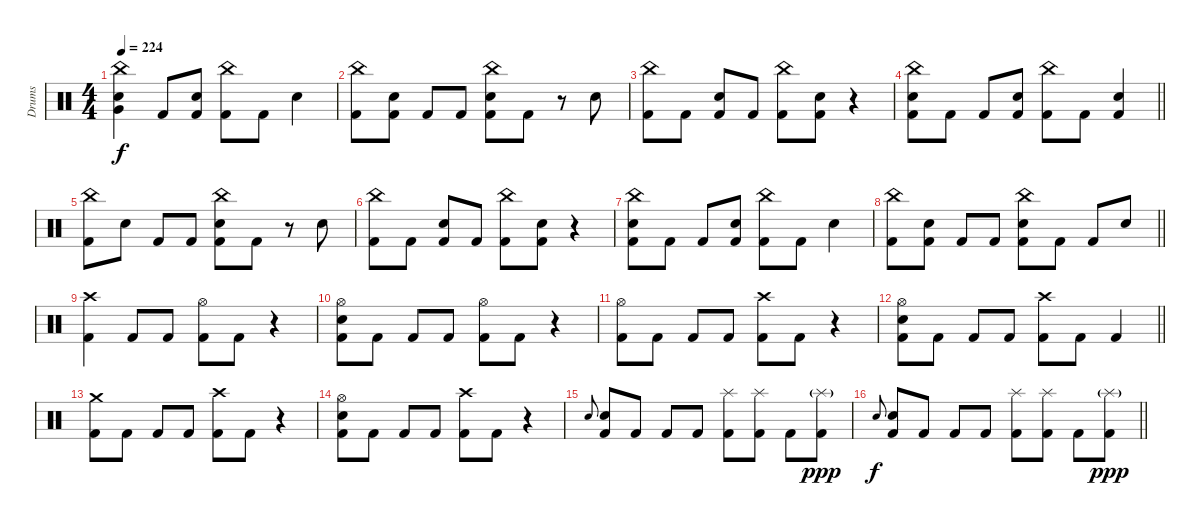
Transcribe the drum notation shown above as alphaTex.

\track ("Drums" "Drums") {instrument percussion}
\staff {score}
\articulation defaults
\ts (4 4)
\section ("" "")
\tempo 224
\clef neutral
\ks c
("China (hit)" "Electric Snare (hit)" "Very Low Tom (hit)").4{dy f} "Kick (hit) 2".8 ("Electric Snare (hit)" "Kick (hit) 2").8 ("China (hit)" "Kick (hit) 2").8 "Kick (hit) 2".8 "Electric Snare (hit)".4 |
("China (hit)" "Kick (hit) 2").8 ("Electric Snare (hit)" "Kick (hit) 2").8 "Kick (hit) 2".8 "Kick (hit) 2".8 ("China (hit)" "Electric Snare (hit)" "Kick (hit) 2").8 "Kick (hit) 2".8 r.8 "Electric Snare (hit)".8 |
("China (hit)" "Kick (hit) 2").8 "Kick (hit) 2".8 ("Electric Snare (hit)" "Kick (hit) 2").8 "Kick (hit) 2".8 ("China (hit)" "Kick (hit) 2").8 ("Electric Snare (hit)" "Kick (hit) 2").8 r.4 |
\barLineRight lightlight
("China (hit)" "Electric Snare (hit)" "Kick (hit) 2").8 "Kick (hit) 2".8 "Kick (hit) 2".8 ("Electric Snare (hit)" "Kick (hit) 2").8 ("China (hit)" "Kick (hit) 2").8 "Kick (hit) 2".8 ("Electric Snare (hit)" "Kick (hit) 2").4 |
("China (hit)" "Kick (hit) 2").8 "Electric Snare (hit)".8 "Kick (hit) 2".8 "Kick (hit) 2".8 ("China (hit)" "Electric Snare (hit)" "Kick (hit) 2").8 "Kick (hit) 2".8 r.8 "Electric Snare (hit)".8 |
("China (hit)" "Kick (hit) 2").8 "Kick (hit) 2".8 ("Electric Snare (hit)" "Kick (hit) 2").8 "Kick (hit) 2".8 ("China (hit)" "Kick (hit) 2").8 ("Electric Snare (hit)" "Kick (hit) 2").8 r.4 |
("China (hit)" "Electric Snare (hit)" "Kick (hit) 2").8 "Kick (hit) 2".8 "Kick (hit) 2".8 ("Electric Snare (hit)" "Kick (hit) 2").8 ("China (hit)" "Kick (hit) 2").8 "Kick (hit) 2".8 "Electric Snare (hit)".4 |
\barLineRight lightlight
("China (hit)" "Kick (hit) 2").8 ("Electric Snare (hit)" "Kick (hit) 2").8 "Kick (hit) 2".8 "Kick (hit) 2".8 ("China (hit)" "Electric Snare (hit)" "Kick (hit) 2").8 "Kick (hit) 2".8 "Kick (hit) 2".8 "Electric Snare (hit)".8 |
\section ("" "")
("Crash high (hit)" "Kick (hit) 2").4 "Kick (hit) 2".8 "Kick (hit) 2".8 ("Hi-Hat (open)" "Kick (hit) 2").8 "Kick (hit) 2".8 r.4 |
("Hi-Hat (open)" "Electric Snare (hit)" "Kick (hit) 2").8 "Kick (hit) 2".8 "Kick (hit) 2".8 "Kick (hit) 2".8 ("Hi-Hat (open)" "Kick (hit) 2").8 "Kick (hit) 2".8 r.4 |
("Hi-Hat (open)" "Kick (hit) 2").8 "Kick (hit) 2".8 "Kick (hit) 2".8 "Kick (hit) 2".8 ("Crash high (hit)" "Kick (hit) 2").8 "Kick (hit) 2".8 r.4 |
\barLineRight lightlight
("Hi-Hat (open)" "Electric Snare (hit)" "Kick (hit) 2").8 "Kick (hit) 2".8 "Kick (hit) 2".8 "Kick (hit) 2".8 ("Crash high (hit)" "Kick (hit) 2").8 "Kick (hit) 2".8 "Kick (hit) 2".4 |
("Crash medium (hit)" "Kick (hit) 2").8 "Kick (hit) 2".8 "Kick (hit) 2".8 "Kick (hit) 2".8 ("Crash high (hit)" "Kick (hit) 2").8 "Kick (hit) 2".8 r.4 |
("Hi-Hat (open)" "Electric Snare (hit)" "Kick (hit) 2").8 "Kick (hit) 2".8 "Kick (hit) 2".8 "Kick (hit) 2".8 ("Crash high (hit)" "Kick (hit) 2").8 "Kick (hit) 2".8 r.4 |
"Electric Snare (hit)".8{gr onbeat} ("Electric Snare (hit)" "Kick (hit) 2").8 "Kick (hit) 2".8 "Kick (hit) 2".8 "Kick (hit) 2".8 ("Splash (hit)" "Kick (hit) 2").8 ("Splash (hit)" "Kick (hit) 2").8 "Kick (hit) 2".8 ("Splash (hit)"{g} "Kick (hit) 2").8{dy ppp} |
\barLineRight lightlight "Electric Snare (hit)".8{gr onbeat dy f}
("Electric Snare (hit)" "Kick (hit) 2").8 "Kick (hit) 2".8 "Kick (hit) 2".8 "Kick (hit) 2".8 ("Splash (hit)" "Kick (hit) 2").8 ("Splash (hit)" "Kick (hit) 2").8 "Kick (hit) 2".8 ("Splash (hit)"{g} "Kick (hit) 2").8{dy ppp}
